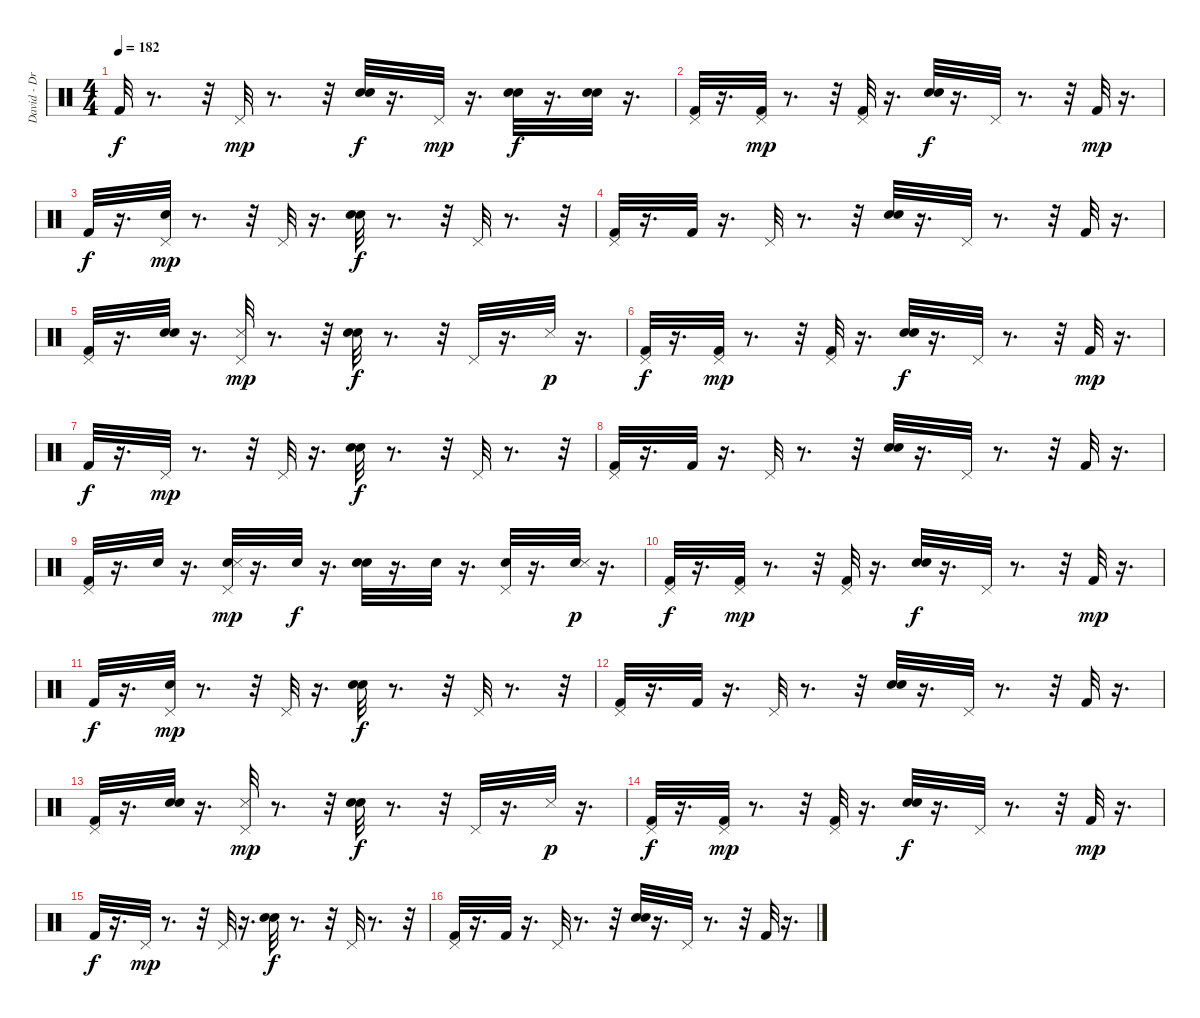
\track ("David - Drums" "David - Dr") {instrument percussion}
\staff {score}
\articulation defaults
\ts (4 4)
\tempo 182
\clef neutral
\ks c "Kick (hit) 2".32{dy f}
r.8{d} r.32 "Pedal Hi-Hat (hit)".32{dy mp} r.8{d} r.32 ("Snare (hit) 2" "Electric Snare (hit)").32{dy f} r.16{d} "Pedal Hi-Hat (hit)".32{dy mp} r.16{d} ("Snare (hit) 2" "Electric Snare (hit)").32{dy f} r.16{d} ("Snare (hit) 2" "Electric Snare (hit)").32 r.16{d} |
("Pedal Hi-Hat (hit)" "Kick (hit) 2").32 r.16{d} ("Kick (hit) 2" "Pedal Hi-Hat (hit)").32{dy mp} r.8{d} r.32 ("Pedal Hi-Hat (hit)" "Kick (hit) 2").32 r.16{d} ("Snare (hit) 2" "Electric Snare (hit)").32{dy f} r.16{d} "Pedal Hi-Hat (hit)".32 r.8{d} r.32 "Kick (hit) 2".32{dy mp} r.16{d} |
"Kick (hit) 2".32{dy f} r.16{d} ("Pedal Hi-Hat (hit)" "Electric Snare (hit)").32{dy mp} r.8{d} r.32 "Pedal Hi-Hat (hit)".32 r.16{d} ("Snare (hit) 2" "Electric Snare (hit)").32{dy f} r.8{d} r.32 "Pedal Hi-Hat (hit)".32 r.8{d} r.32 |
("Pedal Hi-Hat (hit)" "Kick (hit) 2").32 r.16{d} "Kick (hit) 2".32 r.16{d} "Pedal Hi-Hat (hit)".32 r.8{d} r.32 ("Snare (hit) 2" "Electric Snare (hit)").32 r.16{d} "Pedal Hi-Hat (hit)".32 r.8{d} r.32 "Kick (hit) 2".32 r.16{d} |
("Pedal Hi-Hat (hit)" "Kick (hit) 2").32 r.16{d} ("Snare (hit) 2" "Hand Clap (hit)").32 r.16{d} ("Pedal Hi-Hat (hit)" "Snare (side stick) 3").32{dy mp} r.8{d} r.32 ("Snare (hit) 2" "Electric Snare (hit)").32{dy f} r.8{d} r.32 "Pedal Hi-Hat (hit)".32 r.16{d} "Snare (side stick) 3".32{dy p} r.16{d} |
("Pedal Hi-Hat (hit)" "Kick (hit) 2").32{dy f} r.16{d} ("Kick (hit) 2" "Pedal Hi-Hat (hit)").32{dy mp} r.8{d} r.32 ("Pedal Hi-Hat (hit)" "Kick (hit) 2").32 r.16{d} ("Snare (hit) 2" "Electric Snare (hit)").32{dy f} r.16{d} "Pedal Hi-Hat (hit)".32 r.8{d} r.32 "Kick (hit) 2".32{dy mp} r.16{d} |
"Kick (hit) 2".32{dy f} r.16{d} "Pedal Hi-Hat (hit)".32{dy mp} r.8{d} r.32 "Pedal Hi-Hat (hit)".32 r.16{d} ("Snare (hit) 2" "Electric Snare (hit)").32{dy f} r.8{d} r.32 "Pedal Hi-Hat (hit)".32 r.8{d} r.32 |
("Pedal Hi-Hat (hit)" "Kick (hit) 2").32 r.16{d} "Kick (hit) 2".32 r.16{d} "Pedal Hi-Hat (hit)".32 r.8{d} r.32 ("Snare (hit) 2" "Electric Snare (hit)").32 r.16{d} "Pedal Hi-Hat (hit)".32 r.8{d} r.32 "Kick (hit) 2".32 r.16{d} |
("Pedal Hi-Hat (hit)" "Kick (hit) 2").32 r.16{d} "Electric Snare (hit)".32 r.16{d} ("Electric Snare (hit)" "Pedal Hi-Hat (hit)" "Snare (side stick) 3").32{dy mp} r.16{d} "Electric Snare (hit)".32{dy f} r.16{d} ("Snare (hit) 2" "Electric Snare (hit)").32 r.16{d} "Electric Snare (hit)".32 r.16{d} ("Electric Snare (hit)" "Pedal Hi-Hat (hit)").32 r.16{d} ("Electric Snare (hit)" "Snare (side stick) 3").32{dy p} r.16{d} |
("Pedal Hi-Hat (hit)" "Kick (hit) 2").32{dy f} r.16{d} ("Kick (hit) 2" "Pedal Hi-Hat (hit)").32{dy mp} r.8{d} r.32 ("Pedal Hi-Hat (hit)" "Kick (hit) 2").32 r.16{d} ("Snare (hit) 2" "Electric Snare (hit)").32{dy f} r.16{d} "Pedal Hi-Hat (hit)".32 r.8{d} r.32 "Kick (hit) 2".32{dy mp} r.16{d} |
"Kick (hit) 2".32{dy f} r.16{d} ("Pedal Hi-Hat (hit)" "Electric Snare (hit)").32{dy mp} r.8{d} r.32 "Pedal Hi-Hat (hit)".32 r.16{d} ("Snare (hit) 2" "Electric Snare (hit)").32{dy f} r.8{d} r.32 "Pedal Hi-Hat (hit)".32 r.8{d} r.32 |
("Pedal Hi-Hat (hit)" "Kick (hit) 2").32 r.16{d} "Kick (hit) 2".32 r.16{d} "Pedal Hi-Hat (hit)".32 r.8{d} r.32 ("Snare (hit) 2" "Electric Snare (hit)").32 r.16{d} "Pedal Hi-Hat (hit)".32 r.8{d} r.32 "Kick (hit) 2".32 r.16{d} |
("Pedal Hi-Hat (hit)" "Kick (hit) 2").32 r.16{d} ("Snare (hit) 2" "Hand Clap (hit)").32 r.16{d} ("Pedal Hi-Hat (hit)" "Snare (side stick) 3").32{dy mp} r.8{d} r.32 ("Snare (hit) 2" "Electric Snare (hit)").32{dy f} r.8{d} r.32 "Pedal Hi-Hat (hit)".32 r.16{d} "Snare (side stick) 3".32{dy p} r.16{d} |
("Pedal Hi-Hat (hit)" "Kick (hit) 2").32{dy f} r.16{d} ("Kick (hit) 2" "Pedal Hi-Hat (hit)").32{dy mp} r.8{d} r.32 ("Pedal Hi-Hat (hit)" "Kick (hit) 2").32 r.16{d} ("Snare (hit) 2" "Electric Snare (hit)").32{dy f} r.16{d} "Pedal Hi-Hat (hit)".32 r.8{d} r.32 "Kick (hit) 2".32{dy mp} r.16{d} |
"Kick (hit) 2".32{dy f} r.16{d} "Pedal Hi-Hat (hit)".32{dy mp} r.8{d} r.32 "Pedal Hi-Hat (hit)".32 r.16{d} ("Snare (hit) 2" "Electric Snare (hit)").32{dy f} r.8{d} r.32 "Pedal Hi-Hat (hit)".32 r.8{d} r.32 |
("Pedal Hi-Hat (hit)" "Kick (hit) 2").32 r.16{d} "Kick (hit) 2".32 r.16{d} "Pedal Hi-Hat (hit)".32 r.8{d} r.32 ("Snare (hit) 2" "Electric Snare (hit)").32 r.16{d} "Pedal Hi-Hat (hit)".32 r.8{d} r.32 "Kick (hit) 2".32 r.16{d}
